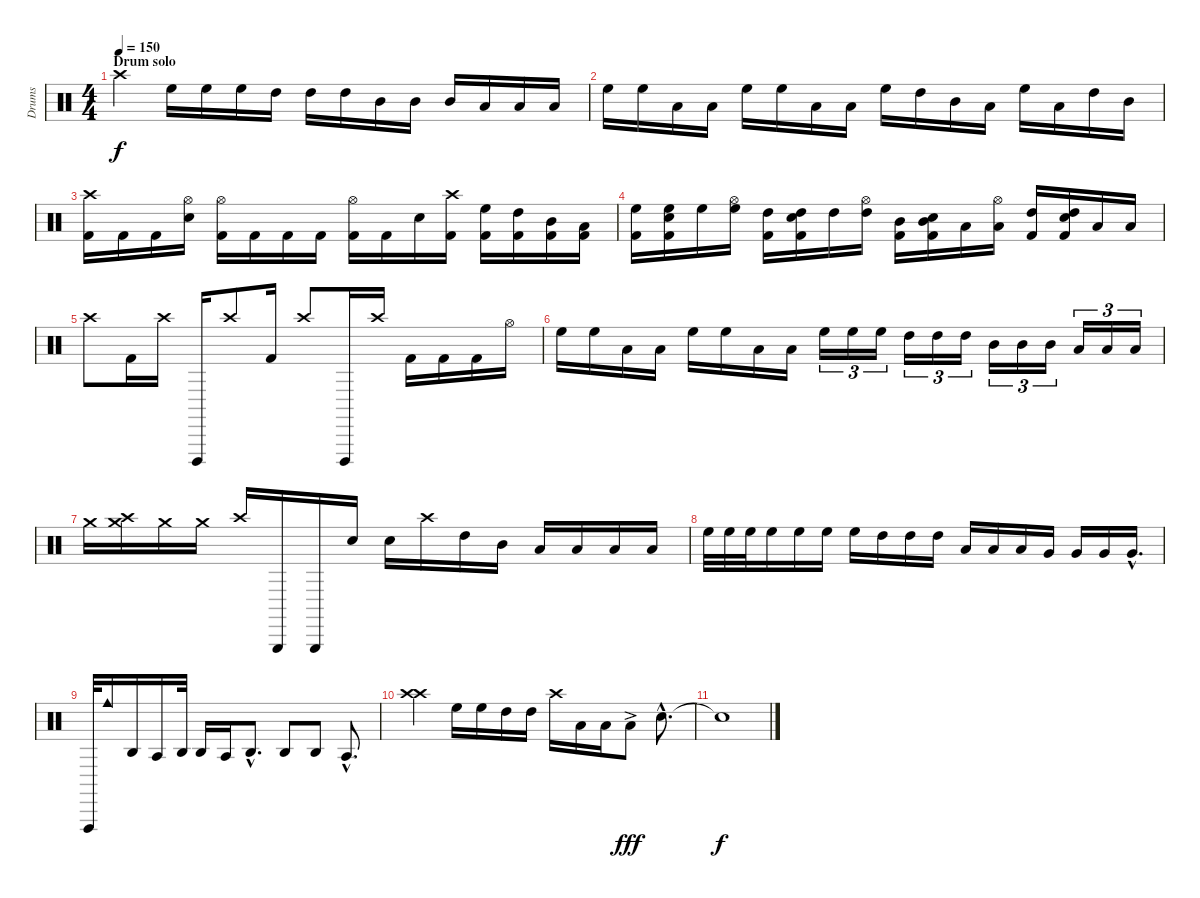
\track ("Drums" "Drums") {instrument percussion}
\staff {score}
\articulation defaults
\ts (4 4)
\section ("" "Drum solo")
\tempo 150
\clef neutral
\ks c "Crash high (hit)".4{dy f} "High Floor Tom (hit)".16 "High Floor Tom (hit)".16 "High Floor Tom (hit)".16 "High Tom (hit)".16 "High Tom (hit)".16 "High Tom (hit)".16 "Mid Tom (hit)".16 "Mid Tom (hit)".16 "Mid Tom (hit)".16 "Low Tom (hit)".16 "Low Tom (hit)".16 "Low Tom (hit)".16
|
"High Floor Tom (hit)".16 "High Floor Tom (hit)".16 "Low Tom (hit)".16 "Low Tom (hit)".16 "High Floor Tom (hit)".16 "High Floor Tom (hit)".16 "Low Tom (hit)".16 "Low Tom (hit)".16 "High Floor Tom (hit)".16 "High Tom (hit)".16 "Mid Tom (hit)".16 "Low Tom (hit)".16 "High Floor Tom (hit)".16 "Low Tom (hit)".16 "High Tom (hit)".16 "Mid Tom (hit)".16 |
("Crash high (hit)" "Kick (hit) 2").16 "Kick (hit) 2".16 "Kick (hit) 2".16 ("Hi-Hat (open)" "Snare (hit) 2").16 ("Hi-Hat (open)" "Kick (hit) 2").16 "Kick (hit) 2".16 "Kick (hit) 2".16 "Kick (hit) 2".16 ("Hi-Hat (open)" "Kick (hit) 2").16 "Kick (hit) 2".16 "Snare (hit) 2".16 ("Crash high (hit)" "Kick (hit) 2").16 ("High Floor Tom (hit)" "Kick (hit) 2").16 ("High Tom (hit)" "Kick (hit) 2").16 ("Mid Tom (hit)" "Kick (hit) 2").16 ("Low Tom (hit)" "Kick (hit) 2").16 |
("High Floor Tom (hit)" "Kick (hit) 2").16 ("High Floor Tom (hit)" "Kick (hit) 2" "Snare (hit) 2").16 "High Floor Tom (hit)".16 ("High Floor Tom (hit)" "Hi-Hat (open)").16 ("High Tom (hit)" "Kick (hit) 2").16 ("High Tom (hit)" "Kick (hit) 2" "Snare (hit) 2").16 "High Tom (hit)".16 ("High Tom (hit)" "Hi-Hat (open)").16 ("Mid Tom (hit)" "Kick (hit) 2").16 ("Mid Tom (hit)" "Kick (hit) 2" "Snare (hit) 2").16 "Low Tom (hit)".16 ("Low Tom (hit)" "Hi-Hat (open)").16 ("High Tom (hit)" "Kick (hit) 2").16 ("High Tom (hit)" "Kick (hit) 2" "Snare (hit) 2").16 "Low Tom (hit)".16 "Low Tom (hit)".16 |
"Crash high (hit)".8 "Kick (hit) 2".16 "Crash high (hit)".16 "Cuica (open)".16 "Crash high (hit)".8 "Kick (hit) 2".16 "Crash high (hit)".8 "Cuica (open)".16 "Crash high (hit)".16 "Kick (hit) 2".16 "Kick (hit) 2".16 "Kick (hit) 2".16 "Hi-Hat (open)".16 |
"High Floor Tom (hit)".16 "High Floor Tom (hit)".16 "Low Tom (hit)".16 "Low Tom (hit)".16 "High Floor Tom (hit)".16 "High Floor Tom (hit)".16 "Low Tom (hit)".16 "Low Tom (hit)".16 "High Floor Tom (hit)".16{tu (3 2)} "High Floor Tom (hit)".16{tu (3 2)} "High Floor Tom (hit)".16{tu (3 2)} "High Tom (hit)".16{tu (3 2)} "High Tom (hit)".16{tu (3 2)} "High Tom (hit)".16{tu (3 2)} "Mid Tom (hit)".16{tu (3 2)} "Mid Tom (hit)".16{tu (3 2)} "Mid Tom (hit)".16{tu (3 2)} "Low Tom (hit)".16{tu (3 2)} "Low Tom (hit)".16{tu (3 2)} "Low Tom (hit)".16{tu (3 2)} |
"Crash medium (hit)".16 ("Crash high (hit)" "Crash medium (hit)").16 "Crash medium (hit)".16 "Crash medium (hit)".16 "Crash high (hit)".16 "Triangle (hit)".16 "Triangle (hit)".16 "Snare (hit) 2".16 "Snare (hit) 2".16 "Crash high (hit)".16 "High Tom (hit)".16 "Mid Tom (hit)".16 "Low Tom (hit)".16 "Low Tom (hit)".16 "Low Tom (hit)".16 "Low Tom (hit)".16 |
"High Floor Tom (hit)".32 "High Floor Tom (hit)".32 "High Floor Tom (hit)".32 "High Floor Tom (hit)".16 "High Floor Tom (hit)".16 "High Floor Tom (hit)".16 "High Floor Tom (hit)".16 "High Tom (hit)".16 "High Tom (hit)".16 "High Tom (hit)".16 "Low Tom (hit)".16 "Low Tom (hit)".16 "Low Tom (hit)".16 "Very Low Tom (hit)".16 "Very Low Tom (hit)".16 "Very Low Tom (hit)".16 "Very Low Tom (hit)"{hac}.16{d} |
"Vibraslap (hit)".32 "Cowbell medium (hit)".16 "Agogo high (hit)".16 "Agogo tow (hit)".16 "Agogo high (hit)".32 "Agogo high (hit)".16 "Agogo tow (hit)".16 "Agogo high (hit)"{hac}.8{d} "Agogo high (hit)".8 "Agogo high (hit)".8 "Agogo tow (hit)"{hac}.8{d} |
("Crash high (hit)" "Crash high (hit)").4 "High Floor Tom (hit)".16 "High Floor Tom (hit)".16 "High Tom (hit)".16 "High Tom (hit)".16 "Crash high (hit)".16 "Low Tom (hit)".16 "Low Tom (hit)".16 "Low Tom (hit)"{ac}.8{dy fff} "Metronome (bell)"{hac}.8{d} |
"Snare (hit)"{t}.1{dy f}
